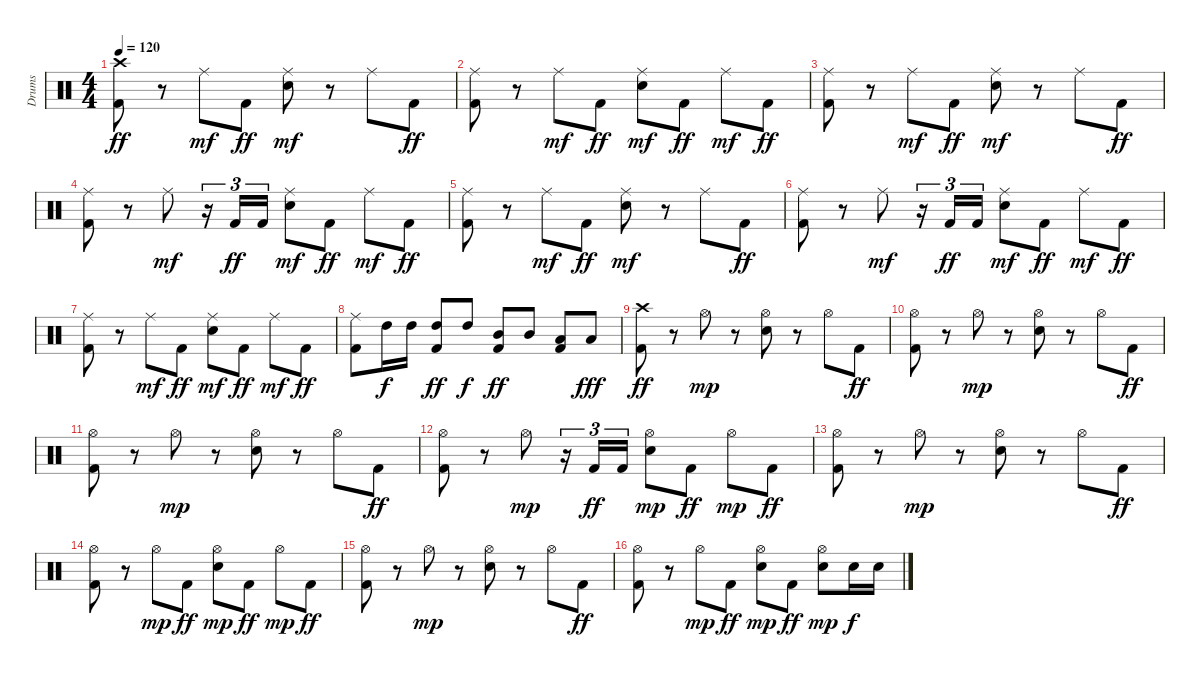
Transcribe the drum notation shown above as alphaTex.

\track ("Drums" "Drums") {instrument percussion}
\staff {score}
\articulation defaults
\ts (4 4)
\tempo 120
\clef neutral
\ks c
("Crash high (hit)" "Kick (hit) 2").8{dy ff} r.8 "Ride (middle)".8{dy mf} "Kick (hit) 2".8{dy ff} ("Ride (middle)" "Electric Snare (hit)").8{dy mf} r.8 "Ride (middle)".8 "Kick (hit) 2".8{dy ff} |
("Ride (middle)" "Kick (hit) 2").8 r.8 "Ride (middle)".8{dy mf} "Kick (hit) 2".8{dy ff} ("Ride (middle)" "Electric Snare (hit)").8{dy mf} "Kick (hit) 2".8{dy ff} "Ride (middle)".8{dy mf} "Kick (hit) 2".8{dy ff} |
("Ride (middle)" "Kick (hit) 2").8 r.8 "Ride (middle)".8{dy mf} "Kick (hit) 2".8{dy ff} ("Ride (middle)" "Electric Snare (hit)").8{dy mf} r.8 "Ride (middle)".8 "Kick (hit) 2".8{dy ff} |
("Ride (middle)" "Kick (hit) 2").8 r.8 "Ride (middle)".8{dy mf} r.16{tu (3 2)} "Kick (hit) 2".16{tu (3 2) dy ff} "Kick (hit) 2".16{tu (3 2)} ("Ride (middle)" "Electric Snare (hit)").8{dy mf} "Kick (hit) 2".8{dy ff} "Ride (middle)".8{dy mf} "Kick (hit) 2".8{dy ff} |
("Ride (middle)" "Kick (hit) 2").8 r.8 "Ride (middle)".8{dy mf} "Kick (hit) 2".8{dy ff} ("Ride (middle)" "Electric Snare (hit)").8{dy mf} r.8 "Ride (middle)".8 "Kick (hit) 2".8{dy ff} |
("Ride (middle)" "Kick (hit) 2").8 r.8 "Ride (middle)".8{dy mf} r.16{tu (3 2)} "Kick (hit) 2".16{tu (3 2) dy ff} "Kick (hit) 2".16{tu (3 2)} ("Ride (middle)" "Electric Snare (hit)").8{dy mf} "Kick (hit) 2".8{dy ff} "Ride (middle)".8{dy mf} "Kick (hit) 2".8{dy ff} |
("Ride (middle)" "Kick (hit) 2").8 r.8 "Ride (middle)".8{dy mf} "Kick (hit) 2".8{dy ff} ("Ride (middle)" "Electric Snare (hit)").8{dy mf} "Kick (hit) 2".8{dy ff} "Ride (middle)".8{dy mf} "Kick (hit) 2".8{dy ff} |
("Ride (middle)" "Kick (hit) 2").8 "High Tom (hit)".16{dy f} "High Tom (hit)".16 ("High Tom (hit)" "Kick (hit) 2").8{dy ff} "High Tom (hit)".8{dy f} ("Mid Tom (hit)" "Kick (hit) 2").8{dy ff} "Mid Tom (hit)".8 ("Low Tom (hit)" "Kick (hit) 2").8 "Low Tom (hit)".8{dy fff} |
\section ("" "")
("Crash high (hit)" "Kick (hit) 2").8{dy ff} r.8 "Hi-Hat (open)".8{dy mp} r.8 ("Hi-Hat (open)" "Electric Snare (hit)").8 r.8 "Hi-Hat (open)".8 "Kick (hit) 2".8{dy ff} |
("Hi-Hat (open)" "Kick (hit) 2").8 r.8 "Hi-Hat (open)".8{dy mp} r.8 ("Hi-Hat (open)" "Electric Snare (hit)").8 r.8 "Hi-Hat (open)".8 "Kick (hit) 2".8{dy ff} |
("Hi-Hat (open)" "Kick (hit) 2").8 r.8 "Hi-Hat (open)".8{dy mp} r.8 ("Hi-Hat (open)" "Electric Snare (hit)").8 r.8 "Hi-Hat (open)".8 "Kick (hit) 2".8{dy ff} |
("Hi-Hat (open)" "Kick (hit) 2").8 r.8 "Hi-Hat (open)".8{dy mp} r.16{tu (3 2)} "Kick (hit) 2".16{tu (3 2) dy ff} "Kick (hit) 2".16{tu (3 2)} ("Hi-Hat (open)" "Electric Snare (hit)").8{dy mp} "Kick (hit) 2".8{dy ff} "Hi-Hat (open)".8{dy mp} "Kick (hit) 2".8{dy ff} |
("Hi-Hat (open)" "Kick (hit) 2").8 r.8 "Hi-Hat (open)".8{dy mp} r.8 ("Hi-Hat (open)" "Electric Snare (hit)").8 r.8 "Hi-Hat (open)".8 "Kick (hit) 2".8{dy ff} |
("Hi-Hat (open)" "Kick (hit) 2").8 r.8 "Hi-Hat (open)".8{dy mp} "Kick (hit) 2".8{dy ff} ("Hi-Hat (open)" "Electric Snare (hit)").8{dy mp} "Kick (hit) 2".8{dy ff} "Hi-Hat (open)".8{dy mp} "Kick (hit) 2".8{dy ff} |
("Hi-Hat (open)" "Kick (hit) 2").8 r.8 "Hi-Hat (open)".8{dy mp} r.8 ("Hi-Hat (open)" "Electric Snare (hit)").8 r.8 "Hi-Hat (open)".8 "Kick (hit) 2".8{dy ff} |
("Hi-Hat (open)" "Kick (hit) 2").8 r.8 "Hi-Hat (open)".8{dy mp} "Kick (hit) 2".8{dy ff} ("Hi-Hat (open)" "Electric Snare (hit)").8{dy mp} "Kick (hit) 2".8{dy ff} ("Hi-Hat (open)" "Electric Snare (hit)").8{dy mp} "Electric Snare (hit)".16{dy f} "Electric Snare (hit)".16
